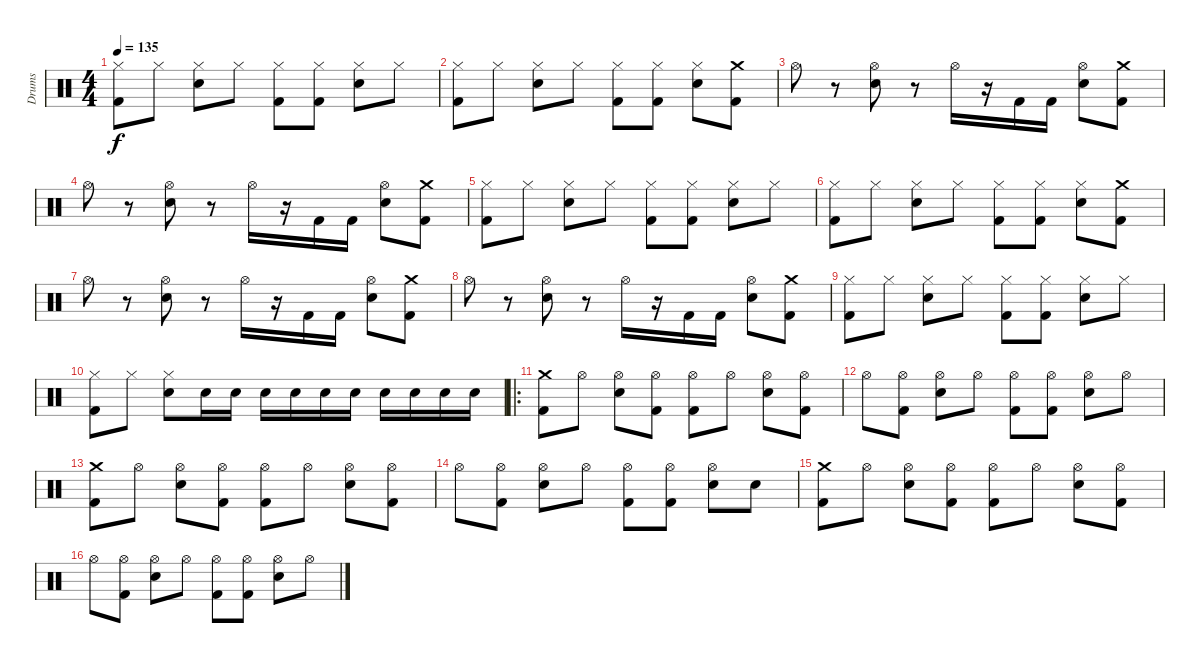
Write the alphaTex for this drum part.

\track ("Drums" "Drums") {instrument percussion}
\staff {score}
\articulation defaults
\ts (4 4)
\tempo 135
\clef neutral
\ks c
("Hi-Hat (closed)" "Kick (hit) 2").8{dy f} "Hi-Hat (closed)".8 ("Hi-Hat (closed)" "Electric Snare (hit)").8 "Hi-Hat (closed)".8 ("Hi-Hat (closed)" "Kick (hit) 2").8 ("Hi-Hat (closed)" "Kick (hit) 2").8 ("Hi-Hat (closed)" "Electric Snare (hit)").8 "Hi-Hat (closed)".8 |
("Hi-Hat (closed)" "Kick (hit) 2").8 "Hi-Hat (closed)".8 ("Hi-Hat (closed)" "Electric Snare (hit)").8 "Hi-Hat (closed)".8 ("Hi-Hat (closed)" "Kick (hit) 2").8 ("Hi-Hat (closed)" "Kick (hit) 2").8 ("Hi-Hat (closed)" "Electric Snare (hit)").8 ("Crash medium (hit)" "Kick (hit) 2").8 |
"Hi-Hat (open)".8 r.8 ("Hi-Hat (open)" "Electric Snare (hit)").8 r.8 "Hi-Hat (open)".16 r.16 "Kick (hit) 2".16 "Kick (hit) 2".16 ("Hi-Hat (open)" "Electric Snare (hit)").8 ("Crash medium (hit)" "Kick (hit) 2").8 |
"Hi-Hat (open)".8 r.8 ("Hi-Hat (open)" "Electric Snare (hit)").8 r.8 "Hi-Hat (open)".16 r.16 "Kick (hit) 2".16 "Kick (hit) 2".16 ("Hi-Hat (open)" "Electric Snare (hit)").8 ("Crash medium (hit)" "Kick (hit) 2").8 |
("Hi-Hat (closed)" "Kick (hit) 2").8 "Hi-Hat (closed)".8 ("Hi-Hat (closed)" "Electric Snare (hit)").8 "Hi-Hat (closed)".8 ("Hi-Hat (closed)" "Kick (hit) 2").8 ("Hi-Hat (closed)" "Kick (hit) 2").8 ("Hi-Hat (closed)" "Electric Snare (hit)").8 "Hi-Hat (closed)".8 |
("Hi-Hat (closed)" "Kick (hit) 2").8 "Hi-Hat (closed)".8 ("Hi-Hat (closed)" "Electric Snare (hit)").8 "Hi-Hat (closed)".8 ("Hi-Hat (closed)" "Kick (hit) 2").8 ("Hi-Hat (closed)" "Kick (hit) 2").8 ("Hi-Hat (closed)" "Electric Snare (hit)").8 ("Crash medium (hit)" "Kick (hit) 2").8 |
"Hi-Hat (open)".8 r.8 ("Hi-Hat (open)" "Electric Snare (hit)").8 r.8 "Hi-Hat (open)".16 r.16 "Kick (hit) 2".16 "Kick (hit) 2".16 ("Hi-Hat (open)" "Electric Snare (hit)").8 ("Crash medium (hit)" "Kick (hit) 2").8 |
"Hi-Hat (open)".8 r.8 ("Hi-Hat (open)" "Electric Snare (hit)").8 r.8 "Hi-Hat (open)".16 r.16 "Kick (hit) 2".16 "Kick (hit) 2".16 ("Hi-Hat (open)" "Electric Snare (hit)").8 ("Crash medium (hit)" "Kick (hit) 2").8 |
("Hi-Hat (closed)" "Kick (hit) 2").8 "Hi-Hat (closed)".8 ("Hi-Hat (closed)" "Electric Snare (hit)").8 "Hi-Hat (closed)".8 ("Hi-Hat (closed)" "Kick (hit) 2").8 ("Hi-Hat (closed)" "Kick (hit) 2").8 ("Hi-Hat (closed)" "Electric Snare (hit)").8 "Hi-Hat (closed)".8 |
("Hi-Hat (closed)" "Kick (hit) 2").8 "Hi-Hat (closed)".8 ("Hi-Hat (closed)" "Electric Snare (hit)").8 "Electric Snare (hit)".16 "Electric Snare (hit)".16 "Electric Snare (hit)".16 "Electric Snare (hit)".16 "Electric Snare (hit)".16 "Electric Snare (hit)".16 "Electric Snare (hit)".16 "Electric Snare (hit)".16 "Electric Snare (hit)".16 "Electric Snare (hit)".16 |
\ro
("Crash medium (hit)" "Kick (hit) 2").8 "Hi-Hat (open)".8 ("Hi-Hat (open)" "Electric Snare (hit)").8 ("Hi-Hat (open)" "Kick (hit) 2").8 ("Hi-Hat (open)" "Kick (hit) 2").8 "Hi-Hat (open)".8 ("Hi-Hat (open)" "Electric Snare (hit)").8 ("Hi-Hat (open)" "Kick (hit) 2").8 |
"Hi-Hat (open)".8 ("Hi-Hat (open)" "Kick (hit) 2").8 ("Hi-Hat (open)" "Electric Snare (hit)").8 "Hi-Hat (open)".8 ("Hi-Hat (open)" "Kick (hit) 2").8 ("Hi-Hat (open)" "Kick (hit) 2").8 ("Hi-Hat (open)" "Electric Snare (hit)").8 "Hi-Hat (open)".8 |
("Crash medium (hit)" "Kick (hit) 2").8 "Hi-Hat (open)".8 ("Hi-Hat (open)" "Electric Snare (hit)").8 ("Hi-Hat (open)" "Kick (hit) 2").8 ("Hi-Hat (open)" "Kick (hit) 2").8 "Hi-Hat (open)".8 ("Hi-Hat (open)" "Electric Snare (hit)").8 ("Hi-Hat (open)" "Kick (hit) 2").8 |
"Hi-Hat (open)".8 ("Hi-Hat (open)" "Kick (hit) 2").8 ("Hi-Hat (open)" "Electric Snare (hit)").8 "Hi-Hat (open)".8 ("Hi-Hat (open)" "Kick (hit) 2").8 ("Hi-Hat (open)" "Kick (hit) 2").8 ("Hi-Hat (open)" "Electric Snare (hit)").8 "Electric Snare (hit)".8 |
("Crash medium (hit)" "Kick (hit) 2").8 "Hi-Hat (open)".8 ("Hi-Hat (open)" "Electric Snare (hit)").8 ("Hi-Hat (open)" "Kick (hit) 2").8 ("Hi-Hat (open)" "Kick (hit) 2").8 "Hi-Hat (open)".8 ("Hi-Hat (open)" "Electric Snare (hit)").8 ("Hi-Hat (open)" "Kick (hit) 2").8 |
"Hi-Hat (open)".8 ("Hi-Hat (open)" "Kick (hit) 2").8 ("Hi-Hat (open)" "Electric Snare (hit)").8 "Hi-Hat (open)".8 ("Hi-Hat (open)" "Kick (hit) 2").8 ("Hi-Hat (open)" "Kick (hit) 2").8 ("Hi-Hat (open)" "Electric Snare (hit)").8 "Hi-Hat (open)".8
